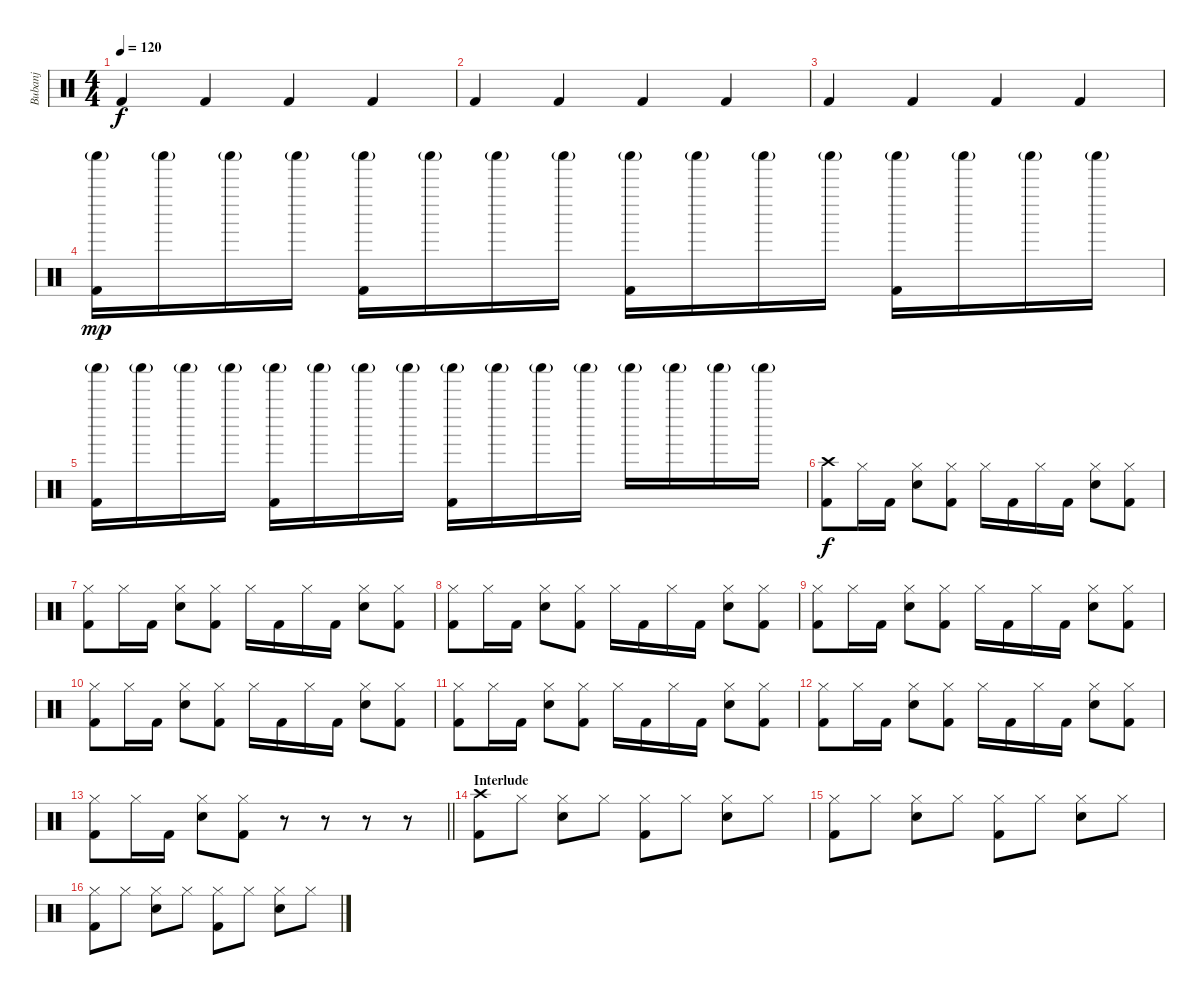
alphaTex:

\track ("Bubanj" "Bubanj") {instrument percussion}
\staff {score}
\articulation defaults
\ts (4 4)
\tempo 120
\clef neutral
\ks c "Kick (hit) 2".4{dy f} "Kick (hit) 2".4 "Kick (hit) 2".4 "Kick (hit) 2".4
|
"Kick (hit) 2".4 "Kick (hit) 2".4 "Kick (hit) 2".4 "Kick (hit) 2".4 |
"Kick (hit) 2".4 "Kick (hit) 2".4 "Kick (hit) 2".4 "Kick (hit) 2".4 |
("Shaker (hit)"{g} "Kick (hit) 2").16{dy mp} "Shaker (hit)"{g}.16 "Shaker (hit)"{g}.16 "Shaker (hit)"{g}.16 ("Shaker (hit)"{g} "Kick (hit) 2").16 "Shaker (hit)"{g}.16 "Shaker (hit)"{g}.16 "Shaker (hit)"{g}.16 ("Shaker (hit)"{g} "Kick (hit) 2").16 "Shaker (hit)"{g}.16 "Shaker (hit)"{g}.16 "Shaker (hit)"{g}.16 ("Shaker (hit)"{g} "Kick (hit) 2").16 "Shaker (hit)"{g}.16 "Shaker (hit)"{g}.16 "Shaker (hit)"{g}.16 |
("Shaker (hit)"{g} "Kick (hit) 2").16 "Shaker (hit)"{g}.16 "Shaker (hit)"{g}.16 "Shaker (hit)"{g}.16 ("Shaker (hit)"{g} "Kick (hit) 2").16 "Shaker (hit)"{g}.16 "Shaker (hit)"{g}.16 "Shaker (hit)"{g}.16 ("Shaker (hit)"{g} "Kick (hit) 2").16 "Shaker (hit)"{g}.16 "Shaker (hit)"{g}.16 "Shaker (hit)"{g}.16 "Shaker (hit)"{g}.16 "Shaker (hit)"{g}.16 "Shaker (hit)"{g}.16 "Shaker (hit)"{g}.16 |
("Crash high (hit)" "Kick (hit) 2").8{dy f} "Hi-Hat (closed)".16 "Kick (hit) 2".16 ("Hi-Hat (closed)" "Electric Snare (hit)").8 ("Hi-Hat (closed)" "Kick (hit) 2").8 "Hi-Hat (closed)".16 "Kick (hit) 2".16 "Hi-Hat (closed)".16 "Kick (hit) 2".16 ("Hi-Hat (closed)" "Electric Snare (hit)").8 ("Hi-Hat (closed)" "Kick (hit) 2").8 |
("Hi-Hat (closed)" "Kick (hit) 2").8 "Hi-Hat (closed)".16 "Kick (hit) 2".16 ("Hi-Hat (closed)" "Electric Snare (hit)").8 ("Hi-Hat (closed)" "Kick (hit) 2").8 "Hi-Hat (closed)".16 "Kick (hit) 2".16 "Hi-Hat (closed)".16 "Kick (hit) 2".16 ("Hi-Hat (closed)" "Electric Snare (hit)").8 ("Hi-Hat (closed)" "Kick (hit) 2").8 |
("Hi-Hat (closed)" "Kick (hit) 2").8 "Hi-Hat (closed)".16 "Kick (hit) 2".16 ("Hi-Hat (closed)" "Electric Snare (hit)").8 ("Hi-Hat (closed)" "Kick (hit) 2").8 "Hi-Hat (closed)".16 "Kick (hit) 2".16 "Hi-Hat (closed)".16 "Kick (hit) 2".16 ("Hi-Hat (closed)" "Electric Snare (hit)").8 ("Hi-Hat (closed)" "Kick (hit) 2").8 |
("Hi-Hat (closed)" "Kick (hit) 2").8 "Hi-Hat (closed)".16 "Kick (hit) 2".16 ("Hi-Hat (closed)" "Electric Snare (hit)").8 ("Hi-Hat (closed)" "Kick (hit) 2").8 "Hi-Hat (closed)".16 "Kick (hit) 2".16 "Hi-Hat (closed)".16 "Kick (hit) 2".16 ("Hi-Hat (closed)" "Electric Snare (hit)").8 ("Hi-Hat (closed)" "Kick (hit) 2").8 |
("Hi-Hat (closed)" "Kick (hit) 2").8 "Hi-Hat (closed)".16 "Kick (hit) 2".16 ("Hi-Hat (closed)" "Electric Snare (hit)").8 ("Hi-Hat (closed)" "Kick (hit) 2").8 "Hi-Hat (closed)".16 "Kick (hit) 2".16 "Hi-Hat (closed)".16 "Kick (hit) 2".16 ("Hi-Hat (closed)" "Electric Snare (hit)").8 ("Hi-Hat (closed)" "Kick (hit) 2").8 |
("Hi-Hat (closed)" "Kick (hit) 2").8 "Hi-Hat (closed)".16 "Kick (hit) 2".16 ("Hi-Hat (closed)" "Electric Snare (hit)").8 ("Hi-Hat (closed)" "Kick (hit) 2").8 "Hi-Hat (closed)".16 "Kick (hit) 2".16 "Hi-Hat (closed)".16 "Kick (hit) 2".16 ("Hi-Hat (closed)" "Electric Snare (hit)").8 ("Hi-Hat (closed)" "Kick (hit) 2").8 |
("Hi-Hat (closed)" "Kick (hit) 2").8 "Hi-Hat (closed)".16 "Kick (hit) 2".16 ("Hi-Hat (closed)" "Electric Snare (hit)").8 ("Hi-Hat (closed)" "Kick (hit) 2").8 "Hi-Hat (closed)".16 "Kick (hit) 2".16 "Hi-Hat (closed)".16 "Kick (hit) 2".16 ("Hi-Hat (closed)" "Electric Snare (hit)").8 ("Hi-Hat (closed)" "Kick (hit) 2").8 |
\barLineRight lightlight
("Hi-Hat (closed)" "Kick (hit) 2").8 "Hi-Hat (closed)".16 "Kick (hit) 2".16 ("Hi-Hat (closed)" "Electric Snare (hit)").8 ("Hi-Hat (closed)" "Kick (hit) 2").8 r.8 r.8 r.8 r.8 |
\section ("" "Interlude")
("Crash high (hit)" "Kick (hit) 2").8 "Hi-Hat (closed)".8 ("Hi-Hat (closed)" "Electric Snare (hit)").8 "Hi-Hat (closed)".8 ("Hi-Hat (closed)" "Kick (hit) 2").8 "Hi-Hat (closed)".8 ("Hi-Hat (closed)" "Electric Snare (hit)").8 "Hi-Hat (closed)".8 |
("Hi-Hat (closed)" "Kick (hit) 2").8 "Hi-Hat (closed)".8 ("Hi-Hat (closed)" "Electric Snare (hit)").8 "Hi-Hat (closed)".8 ("Hi-Hat (closed)" "Kick (hit) 2").8 "Hi-Hat (closed)".8 ("Hi-Hat (closed)" "Electric Snare (hit)").8 "Hi-Hat (closed)".8 |
("Hi-Hat (closed)" "Kick (hit) 2").8 "Hi-Hat (closed)".8 ("Hi-Hat (closed)" "Electric Snare (hit)").8 "Hi-Hat (closed)".8 ("Hi-Hat (closed)" "Kick (hit) 2").8 "Hi-Hat (closed)".8 ("Hi-Hat (closed)" "Electric Snare (hit)").8 "Hi-Hat (closed)".8
